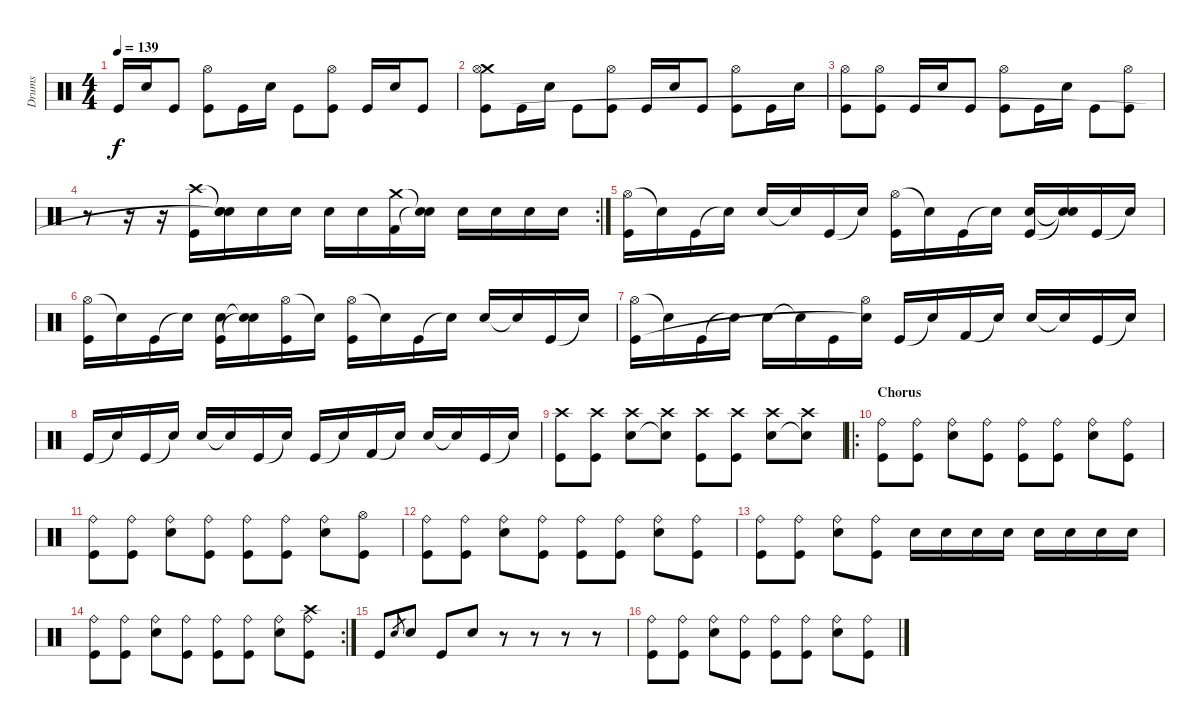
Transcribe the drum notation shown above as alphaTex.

\track ("Drums" "Drums") {instrument percussion}
\staff {score}
\articulation defaults
\ts (4 4)
\tempo 139
\clef neutral
\ks c "Kick (hit)".16{dy f} "Electric Snare (hit)".16 "Kick (hit)".8
("Hi-Hat (open)" "Kick (hit)").8 "Kick (hit)".16 "Electric Snare (hit)".16 "Kick (hit)".8 ("Hi-Hat (open)" "Kick (hit)").8 "Kick (hit)".16 "Electric Snare (hit)".16 "Kick (hit)".8 |
("Crash medium (hit)" "Hi-Hat (open)" "Kick (hit)").8 "Kick (hit)".16 "Electric Snare (hit)".16 "Kick (hit)".8 ("Hi-Hat (open)" "Kick (hit)").8 "Kick (hit)".16 "Electric Snare (hit)".16 "Kick (hit)".8 ("Hi-Hat (open)" "Kick (hit)").8 "Kick (hit)".16 "Electric Snare (hit)".16 |
("Hi-Hat (open)" "Kick (hit)").8 ("Hi-Hat (open)" "Kick (hit)").8 "Kick (hit)".16 "Electric Snare (hit)".16 "Kick (hit)".8 ("Hi-Hat (open)" "Kick (hit)").8 "Kick (hit)".16 "Electric Snare (hit)".16 "Kick (hit)".8 ("Hi-Hat (open)" "Kick (hit)").8 |
\rc 2
r.8 r.16 r.16 ("Crash high (hit)" "Kick (hit)").16 ("Snare (hit)"{t} "Electric Snare (hit)" "Snare (hit)"{t}).16 "Electric Snare (hit)".16 "Electric Snare (hit)".16 "Electric Snare (hit)".16 "Electric Snare (hit)".16 ("Crash medium (hit)" "Kick (hit) 2").16 ("Snare (hit)"{t} "Snare (hit)"{t}).16 "Electric Snare (hit)".16 "Electric Snare (hit)".16 "Electric Snare (hit)".16 "Electric Snare (hit)".16 |
("Hi-Hat (open)" "Kick (hit)").16 "Snare (hit)"{t}.16 "Kick (hit)".16 "Snare (hit)"{t}.16 "Electric Snare (hit)".16 "Snare (hit)"{t}.16 "Kick (hit)".16 "Snare (hit)"{t}.16 ("Hi-Hat (open)" "Kick (hit)").16 "Snare (hit)"{t}.16 "Kick (hit)".16 "Snare (hit)"{t}.16 ("Electric Snare (hit)" "Kick (hit)").16 ("Snare (hit)"{t} "Snare (hit)"{t}).16 "Kick (hit)".16 "Snare (hit)"{t}.16 |
("Hi-Hat (open)" "Kick (hit)").16 "Snare (hit)"{t}.16 "Kick (hit)".16 "Snare (hit)"{t}.16 ("Electric Snare (hit)" "Kick (hit)").16 ("Snare (hit)"{t} "Snare (hit)"{t}).16 ("Hi-Hat (open)" "Kick (hit)").16 "Snare (hit)"{t}.16 ("Hi-Hat (open)" "Kick (hit)").16 "Snare (hit)"{t}.16 "Kick (hit)".16 "Snare (hit)"{t}.16 "Electric Snare (hit)".16 "Snare (hit)"{t}.16 "Kick (hit)".16 "Snare (hit)"{t}.16 |
("Hi-Hat (open)" "Kick (hit)").16 "Snare (hit)"{t}.16 "Kick (hit)".16 "Snare (hit)"{t}.16 "Electric Snare (hit)".16 "Snare (hit)"{t}.16 "Kick (hit)".16 ("Hi-Hat (open)" "Snare (hit)"{t}).16 "Kick (hit)".16 "Snare (hit)"{t}.16 "Kick (hit) 2".16 "Snare (hit)"{t}.16 "Electric Snare (hit)".16 "Snare (hit)"{t}.16 "Kick (hit)".16 "Snare (hit)"{t}.16 |
"Kick (hit)".16 "Snare (hit)"{t}.16 "Kick (hit)".16 "Snare (hit)"{t}.16 "Electric Snare (hit)".16 "Snare (hit)"{t}.16 "Kick (hit)".16 "Snare (hit)"{t}.16 "Kick (hit)".16 "Snare (hit)"{t}.16 "Kick (hit) 2".16 "Snare (hit)"{t}.16 "Electric Snare (hit)".16 "Snare (hit)"{t}.16 "Kick (hit)".16 "Snare (hit)"{t}.16 |
("Crash high (hit)" "Kick (hit)").8 ("Crash high (hit)" "Kick (hit)").8 ("Crash high (hit)" "Electric Snare (hit)").8 ("Crash high (hit)" "Snare (hit)"{t}).8 ("Crash high (hit)" "Kick (hit)").8 ("Crash high (hit)" "Kick (hit)").8 ("Crash high (hit)" "Electric Snare (hit)").8 ("Crash high (hit)" "Snare (hit)"{t}).8 |
\ro
\section ("" "Chorus")
("Ride (bell)" "Kick (hit)").8 ("Ride (bell)" "Kick (hit)").8 ("Ride (bell)" "Electric Snare (hit)").8 ("Ride (bell)" "Kick (hit)").8 ("Ride (bell)" "Kick (hit)").8 ("Ride (bell)" "Kick (hit)").8 ("Ride (bell)" "Electric Snare (hit)").8 ("Ride (bell)" "Kick (hit)").8 |
("Ride (bell)" "Kick (hit)").8 ("Ride (bell)" "Kick (hit)").8 ("Ride (bell)" "Electric Snare (hit)").8 ("Ride (bell)" "Kick (hit)").8 ("Ride (bell)" "Kick (hit)").8 ("Ride (bell)" "Kick (hit)").8 ("Ride (bell)" "Electric Snare (hit)").8 ("Hi-Hat (open)" "Kick (hit)").8 |
("Ride (bell)" "Kick (hit)").8 ("Ride (bell)" "Kick (hit)").8 ("Ride (bell)" "Electric Snare (hit)").8 ("Ride (bell)" "Kick (hit)").8 ("Ride (bell)" "Kick (hit)").8 ("Ride (bell)" "Kick (hit)").8 ("Ride (bell)" "Electric Snare (hit)").8 ("Ride (bell)" "Kick (hit)").8 |
("Ride (bell)" "Kick (hit)").8 ("Ride (bell)" "Kick (hit)").8 ("Ride (bell)" "Electric Snare (hit)").8 ("Ride (bell)" "Kick (hit)").8 "Electric Snare (hit)".16 "Electric Snare (hit)".16 "Electric Snare (hit)".16 "Electric Snare (hit)".16 "Electric Snare (hit)".16 "Electric Snare (hit)".16 "Electric Snare (hit)".16 "Electric Snare (hit)".16 |
\rc 2
("Ride (bell)" "Kick (hit)").8 ("Ride (bell)" "Kick (hit)").8 ("Ride (bell)" "Electric Snare (hit)").8 ("Ride (bell)" "Kick (hit)").8 ("Ride (bell)" "Kick (hit)").8 ("Ride (bell)" "Kick (hit)").8 ("Ride (bell)" "Electric Snare (hit)").8 ("Crash high (hit)" "Ride (bell)" "Kick (hit)").8 |
"Kick (hit)".8 "Electric Snare (hit)".8{gr} "Electric Snare (hit)".8 "Kick (hit)".8 "Electric Snare (hit)".8 r.8 r.8 r.8 r.8 |
("Ride (bell)" "Kick (hit)").8 ("Ride (bell)" "Kick (hit)").8 ("Ride (bell)" "Electric Snare (hit)").8 ("Ride (bell)" "Kick (hit)").8 ("Ride (bell)" "Kick (hit)").8 ("Ride (bell)" "Kick (hit)").8 ("Ride (bell)" "Electric Snare (hit)").8 ("Ride (bell)" "Kick (hit)").8
